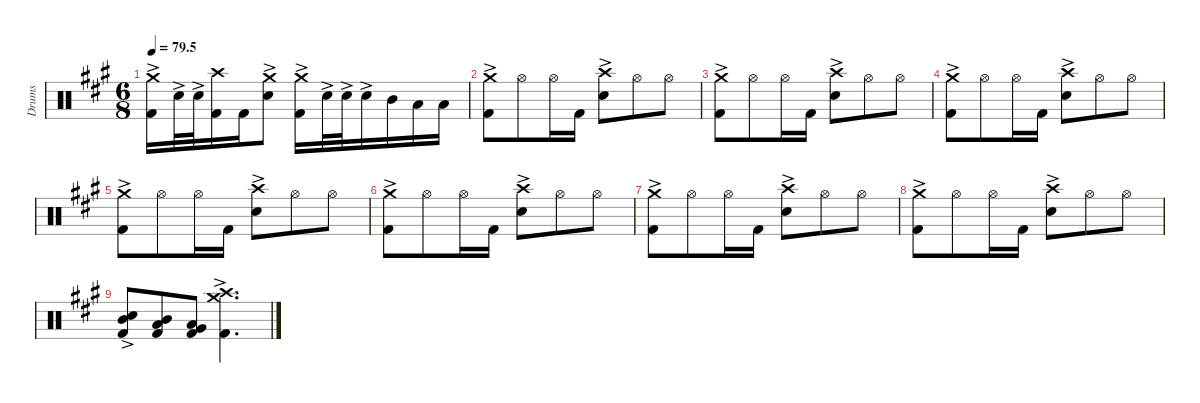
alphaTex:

\defaultSystemsLayout 4
\hideDynamics
\bracketExtendMode nobrackets
\otherSystemsTrackNameOrientation horizontal
\track ("Drumkit (don't unmute)" "Drums") {mute instrument percussion}
\staff {score}
\articulation defaults
\ts (6 8)
\tempo
79.5
\accidentals auto
\clef neutral
\ottava regular
\simile none
\ks a
("Crash medium (hit)"{ac acc forcenatural} "Kick (hit) 2"{acc forcenatural}).16{dy f beam Down} "Snare (hit) 2"{ac acc forcenatural}.32{beam Down} "Snare (hit) 2"{ac acc forcenatural}.32{beam Down} ("Crash high (hit)"{acc forcenatural} "Kick (hit) 2"{acc forcenatural}).16{beam Down} "Kick (hit) 2"{acc forcenatural}.16{beam Down} ("Crash medium (hit)"{ac acc forcenatural} "Snare (hit) 2"{ac acc forcenatural}).8{beam Down} ("Crash medium (hit)"{ac acc forcenatural} "Kick (hit) 2"{acc forcenatural}).16{beam Down} "Snare (hit) 2"{ac acc forcenatural}.32{beam Down} "Snare (hit) 2"{ac acc forcenatural}.32{beam Down} "Snare (hit) 2"{ac acc forcenatural}.16{beam Down} "Mid Tom (hit)"{acc forcenatural}.16{beam Down} "Low Tom (hit)"{acc forcenatural}.16{beam Down} "Low Tom (hit)"{acc forcenatural}.16{beam Down} |
("Crash medium (hit)"{ac acc forcenatural} "Kick (hit) 2"{acc forcenatural}).8{beam Down} "Hi-Hat (open)"{acc forcenatural}.8{beam Down} "Hi-Hat (open)"{acc forcenatural}.16{beam Down} "Kick (hit) 2"{acc forcenatural}.16{beam Down} ("Crash high (hit)"{acc forcenatural} "Snare (hit) 2"{ac acc forcenatural}).8{beam Down} "Hi-Hat (open)"{acc forcenatural}.8{beam Down} "Hi-Hat (open)"{acc forcenatural}.8{beam Down} |
("Crash medium (hit)"{ac acc forcenatural} "Kick (hit) 2"{acc forcenatural}).8{beam Down} "Hi-Hat (open)"{acc forcenatural}.8{beam Down} "Hi-Hat (open)"{acc forcenatural}.16{beam Down} "Kick (hit) 2"{acc forcenatural}.16{beam Down} ("Crash high (hit)"{acc forcenatural} "Snare (hit) 2"{ac acc forcenatural}).8{beam Down} "Hi-Hat (open)"{acc forcenatural}.8{beam Down} "Hi-Hat (open)"{acc forcenatural}.8{beam Down} |
("Crash medium (hit)"{ac acc forcenatural} "Kick (hit) 2"{acc forcenatural}).8{beam Down} "Hi-Hat (open)"{acc forcenatural}.8{beam Down} "Hi-Hat (open)"{acc forcenatural}.16{beam Down} "Kick (hit) 2"{acc forcenatural}.16{beam Down} ("Crash high (hit)"{acc forcenatural} "Snare (hit) 2"{ac acc forcenatural}).8{beam Down} "Hi-Hat (open)"{acc forcenatural}.8{beam Down} "Hi-Hat (open)"{acc forcenatural}.8{beam Down} |
("Crash medium (hit)"{ac acc forcenatural} "Kick (hit) 2"{acc forcenatural}).8{beam Down} "Hi-Hat (open)"{acc forcenatural}.8{beam Down} "Hi-Hat (open)"{acc forcenatural}.16{beam Down} "Kick (hit) 2"{acc forcenatural}.16{beam Down} ("Crash high (hit)"{acc forcenatural} "Snare (hit) 2"{ac acc forcenatural}).8{beam Down} "Hi-Hat (open)"{acc forcenatural}.8{beam Down} "Hi-Hat (open)"{acc forcenatural}.8{beam Down} |
("Crash medium (hit)"{ac acc forcenatural} "Kick (hit) 2"{acc forcenatural}).8{beam Down} "Hi-Hat (open)"{acc forcenatural}.8{beam Down} "Hi-Hat (open)"{acc forcenatural}.16{beam Down} "Kick (hit) 2"{acc forcenatural}.16{beam Down} ("Crash high (hit)"{acc forcenatural} "Snare (hit) 2"{ac acc forcenatural}).8{beam Down} "Hi-Hat (open)"{acc forcenatural}.8{beam Down} "Hi-Hat (open)"{acc forcenatural}.8{beam Down} |
("Crash medium (hit)"{ac acc forcenatural} "Kick (hit) 2"{acc forcenatural}).8{beam Down} "Hi-Hat (open)"{acc forcenatural}.8{beam Down} "Hi-Hat (open)"{acc forcenatural}.16{beam Down} "Kick (hit) 2"{acc forcenatural}.16{beam Down} ("Crash high (hit)"{acc forcenatural} "Snare (hit) 2"{ac acc forcenatural}).8{beam Down} "Hi-Hat (open)"{acc forcenatural}.8{beam Down} "Hi-Hat (open)"{acc forcenatural}.8{beam Down} |
("Crash medium (hit)"{ac acc forcenatural} "Kick (hit) 2"{acc forcenatural}).8{beam Down} "Hi-Hat (open)"{acc forcenatural}.8{beam Down} "Hi-Hat (open)"{acc forcenatural}.16{beam Down} "Kick (hit) 2"{acc forcenatural}.16{beam Down} ("Crash high (hit)"{acc forcenatural} "Snare (hit) 2"{ac acc forcenatural}).8{beam Down} "Hi-Hat (open)"{acc forcenatural}.8{beam Down} "Hi-Hat (open)"{acc forcenatural}.8{beam Down} |
("Mid Tom (hit)"{acc forcenatural} "Snare (hit) 2"{ac acc forcenatural} "Kick (hit) 2"{acc forcenatural}).8{beam Up} ("Mid Tom (hit)"{acc forcenatural} "Low Tom (hit)"{acc forcenatural} "Kick (hit) 2"{acc forcenatural}).8{beam Up} ("Low Tom (hit)"{acc forcenatural} "Very Low Tom (hit)"{acc forcenatural} "Kick (hit) 2"{acc forcenatural}).8{beam Up} ("Crash medium (hit)"{ac acc forcenatural} "Crash high (hit)"{acc forcenatural} "Kick (hit) 2"{acc forcenatural}).4{d beam Down}
